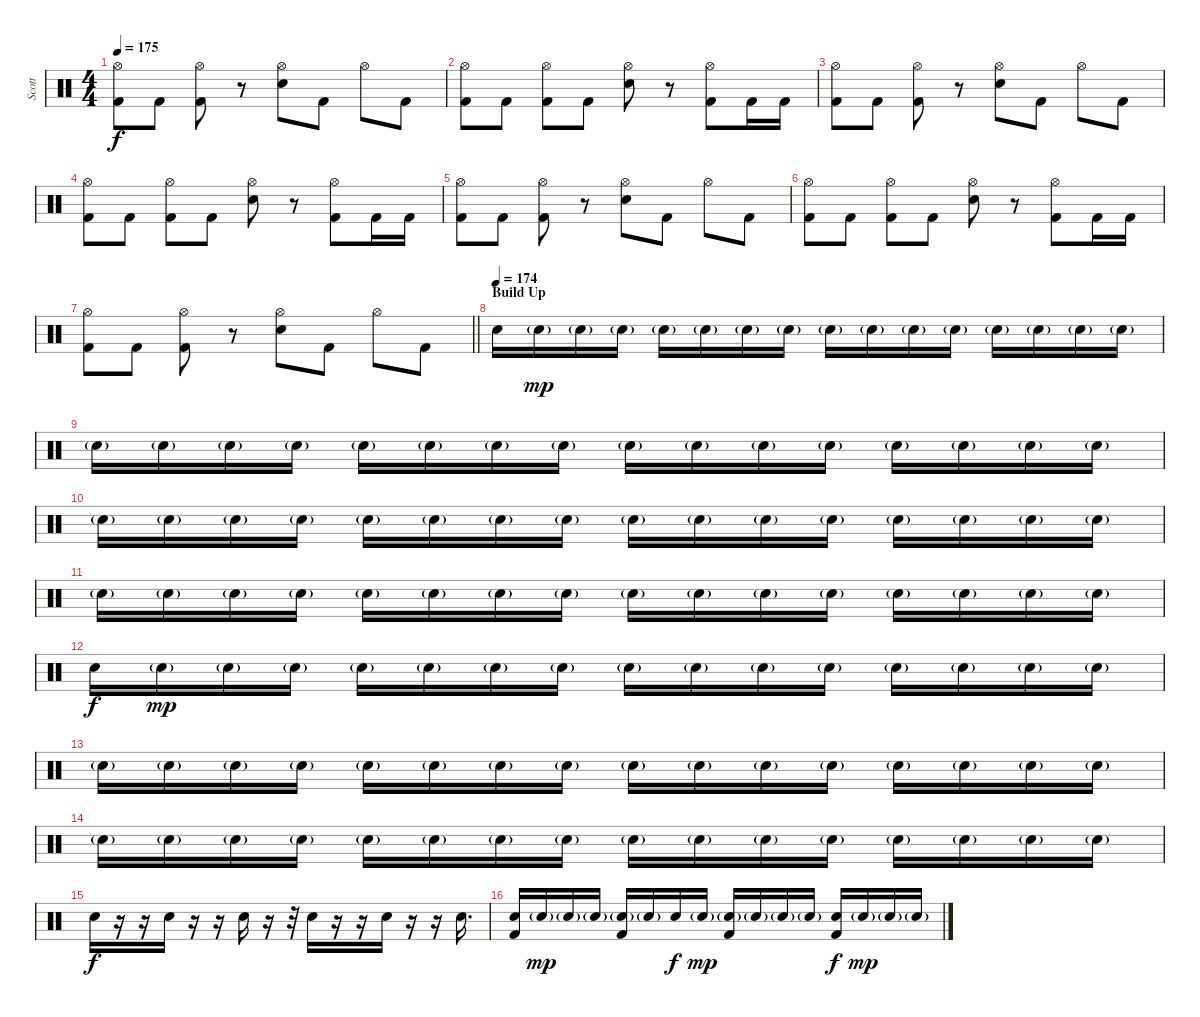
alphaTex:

\track ("Scott" "Scott") {instrument percussion}
\staff {score}
\articulation defaults
\ts (4 4)
\tempo 175
\clef neutral
\ks c
("Hi-Hat (open)" "Kick (hit) 2").8{dy f} "Kick (hit) 2".8 ("Hi-Hat (open)" "Kick (hit) 2").8 r.8 ("Hi-Hat (open)" "Electric Snare (hit)").8 "Kick (hit) 2".8 "Hi-Hat (open)".8 "Kick (hit) 2".8 |
("Hi-Hat (open)" "Kick (hit) 2").8 "Kick (hit) 2".8 ("Hi-Hat (open)" "Kick (hit) 2").8 "Kick (hit) 2".8 ("Hi-Hat (open)" "Electric Snare (hit)").8 r.8 ("Hi-Hat (open)" "Kick (hit) 2").8 "Kick (hit) 2".16 "Kick (hit) 2".16 |
("Hi-Hat (open)" "Kick (hit) 2").8 "Kick (hit) 2".8 ("Hi-Hat (open)" "Kick (hit) 2").8 r.8 ("Hi-Hat (open)" "Electric Snare (hit)").8 "Kick (hit) 2".8 "Hi-Hat (open)".8 "Kick (hit) 2".8 |
("Hi-Hat (open)" "Kick (hit) 2").8 "Kick (hit) 2".8 ("Hi-Hat (open)" "Kick (hit) 2").8 "Kick (hit) 2".8 ("Hi-Hat (open)" "Electric Snare (hit)").8 r.8 ("Hi-Hat (open)" "Kick (hit) 2").8 "Kick (hit) 2".16 "Kick (hit) 2".16 |
("Hi-Hat (open)" "Kick (hit) 2").8 "Kick (hit) 2".8 ("Hi-Hat (open)" "Kick (hit) 2").8 r.8 ("Hi-Hat (open)" "Electric Snare (hit)").8 "Kick (hit) 2".8 "Hi-Hat (open)".8 "Kick (hit) 2".8 |
("Hi-Hat (open)" "Kick (hit) 2").8 "Kick (hit) 2".8 ("Hi-Hat (open)" "Kick (hit) 2").8 "Kick (hit) 2".8 ("Hi-Hat (open)" "Electric Snare (hit)").8 r.8 ("Hi-Hat (open)" "Kick (hit) 2").8 "Kick (hit) 2".16 "Kick (hit) 2".16 |
\barLineRight lightlight
("Hi-Hat (open)" "Kick (hit) 2").8 "Kick (hit) 2".8 ("Hi-Hat (open)" "Kick (hit) 2").8 r.8 ("Hi-Hat (open)" "Electric Snare (hit)").8 "Kick (hit) 2".8 "Hi-Hat (open)".8 "Kick (hit) 2".8 |
\section ("" "Build Up")
\tempo (174)
"Electric Snare (hit)".16 "Electric Snare (hit)"{g}.16{dy mp} "Electric Snare (hit)"{g}.16 "Electric Snare (hit)"{g}.16 "Electric Snare (hit)"{g}.16 "Electric Snare (hit)"{g}.16 "Electric Snare (hit)"{g}.16 "Electric Snare (hit)"{g}.16 "Electric Snare (hit)"{g}.16 "Electric Snare (hit)"{g}.16 "Electric Snare (hit)"{g}.16 "Electric Snare (hit)"{g}.16 "Electric Snare (hit)"{g}.16 "Electric Snare (hit)"{g}.16 "Electric Snare (hit)"{g}.16 "Electric Snare (hit)"{g}.16 |
"Electric Snare (hit)"{g}.16 "Electric Snare (hit)"{g}.16 "Electric Snare (hit)"{g}.16 "Electric Snare (hit)"{g}.16 "Electric Snare (hit)"{g}.16 "Electric Snare (hit)"{g}.16 "Electric Snare (hit)"{g}.16 "Electric Snare (hit)"{g}.16 "Electric Snare (hit)"{g}.16 "Electric Snare (hit)"{g}.16 "Electric Snare (hit)"{g}.16 "Electric Snare (hit)"{g}.16 "Electric Snare (hit)"{g}.16 "Electric Snare (hit)"{g}.16 "Electric Snare (hit)"{g}.16 "Electric Snare (hit)"{g}.16 |
"Electric Snare (hit)"{g}.16 "Electric Snare (hit)"{g}.16 "Electric Snare (hit)"{g}.16 "Electric Snare (hit)"{g}.16 "Electric Snare (hit)"{g}.16 "Electric Snare (hit)"{g}.16 "Electric Snare (hit)"{g}.16 "Electric Snare (hit)"{g}.16 "Electric Snare (hit)"{g}.16 "Electric Snare (hit)"{g}.16 "Electric Snare (hit)"{g}.16 "Electric Snare (hit)"{g}.16 "Electric Snare (hit)"{g}.16 "Electric Snare (hit)"{g}.16 "Electric Snare (hit)"{g}.16 "Electric Snare (hit)"{g}.16 |
"Electric Snare (hit)"{g}.16 "Electric Snare (hit)"{g}.16 "Electric Snare (hit)"{g}.16 "Electric Snare (hit)"{g}.16 "Electric Snare (hit)"{g}.16 "Electric Snare (hit)"{g}.16 "Electric Snare (hit)"{g}.16 "Electric Snare (hit)"{g}.16 "Electric Snare (hit)"{g}.16 "Electric Snare (hit)"{g}.16 "Electric Snare (hit)"{g}.16 "Electric Snare (hit)"{g}.16 "Electric Snare (hit)"{g}.16 "Electric Snare (hit)"{g}.16 "Electric Snare (hit)"{g}.16 "Electric Snare (hit)"{g}.16 |
"Electric Snare (hit)".16{dy f} "Electric Snare (hit)"{g}.16{dy mp} "Electric Snare (hit)"{g}.16 "Electric Snare (hit)"{g}.16 "Electric Snare (hit)"{g}.16 "Electric Snare (hit)"{g}.16 "Electric Snare (hit)"{g}.16 "Electric Snare (hit)"{g}.16 "Electric Snare (hit)"{g}.16 "Electric Snare (hit)"{g}.16 "Electric Snare (hit)"{g}.16 "Electric Snare (hit)"{g}.16 "Electric Snare (hit)"{g}.16 "Electric Snare (hit)"{g}.16 "Electric Snare (hit)"{g}.16 "Electric Snare (hit)"{g}.16 |
"Electric Snare (hit)"{g}.16 "Electric Snare (hit)"{g}.16 "Electric Snare (hit)"{g}.16 "Electric Snare (hit)"{g}.16 "Electric Snare (hit)"{g}.16 "Electric Snare (hit)"{g}.16 "Electric Snare (hit)"{g}.16 "Electric Snare (hit)"{g}.16 "Electric Snare (hit)"{g}.16 "Electric Snare (hit)"{g}.16 "Electric Snare (hit)"{g}.16 "Electric Snare (hit)"{g}.16 "Electric Snare (hit)"{g}.16 "Electric Snare (hit)"{g}.16 "Electric Snare (hit)"{g}.16 "Electric Snare (hit)"{g}.16 |
"Electric Snare (hit)"{g}.16 "Electric Snare (hit)"{g}.16 "Electric Snare (hit)"{g}.16 "Electric Snare (hit)"{g}.16 "Electric Snare (hit)"{g}.16 "Electric Snare (hit)"{g}.16 "Electric Snare (hit)"{g}.16 "Electric Snare (hit)"{g}.16 "Electric Snare (hit)"{g}.16 "Electric Snare (hit)"{g}.16 "Electric Snare (hit)"{g}.16 "Electric Snare (hit)"{g}.16 "Electric Snare (hit)"{g}.16 "Electric Snare (hit)"{g}.16 "Electric Snare (hit)"{g}.16 "Electric Snare (hit)"{g}.16 |
"Electric Snare (hit)".16{dy f} r.16 r.16 "Electric Snare (hit)".16 r.16 r.16 "Electric Snare (hit)".16 r.16 r.32 "Electric Snare (hit)".16 r.16 r.16 "Electric Snare (hit)".16 r.16 r.16 "Electric Snare (hit)".16{d} |
("Electric Snare (hit)" "Kick (hit) 2").16 "Electric Snare (hit)"{g}.16{dy mp} "Electric Snare (hit)"{g}.16 "Electric Snare (hit)"{g}.16 ("Electric Snare (hit)"{g} "Kick (hit) 2").16 "Electric Snare (hit)"{g}.16 "Electric Snare (hit)".16{dy f} "Electric Snare (hit)"{g}.16{dy mp} ("Electric Snare (hit)"{g} "Kick (hit) 2").16 "Electric Snare (hit)"{g}.16 "Electric Snare (hit)"{g}.16 "Electric Snare (hit)"{g}.16 ("Electric Snare (hit)" "Kick (hit) 2").16{dy f} "Electric Snare (hit)"{g}.16{dy mp} "Electric Snare (hit)"{g}.16 "Electric Snare (hit)"{g}.16
